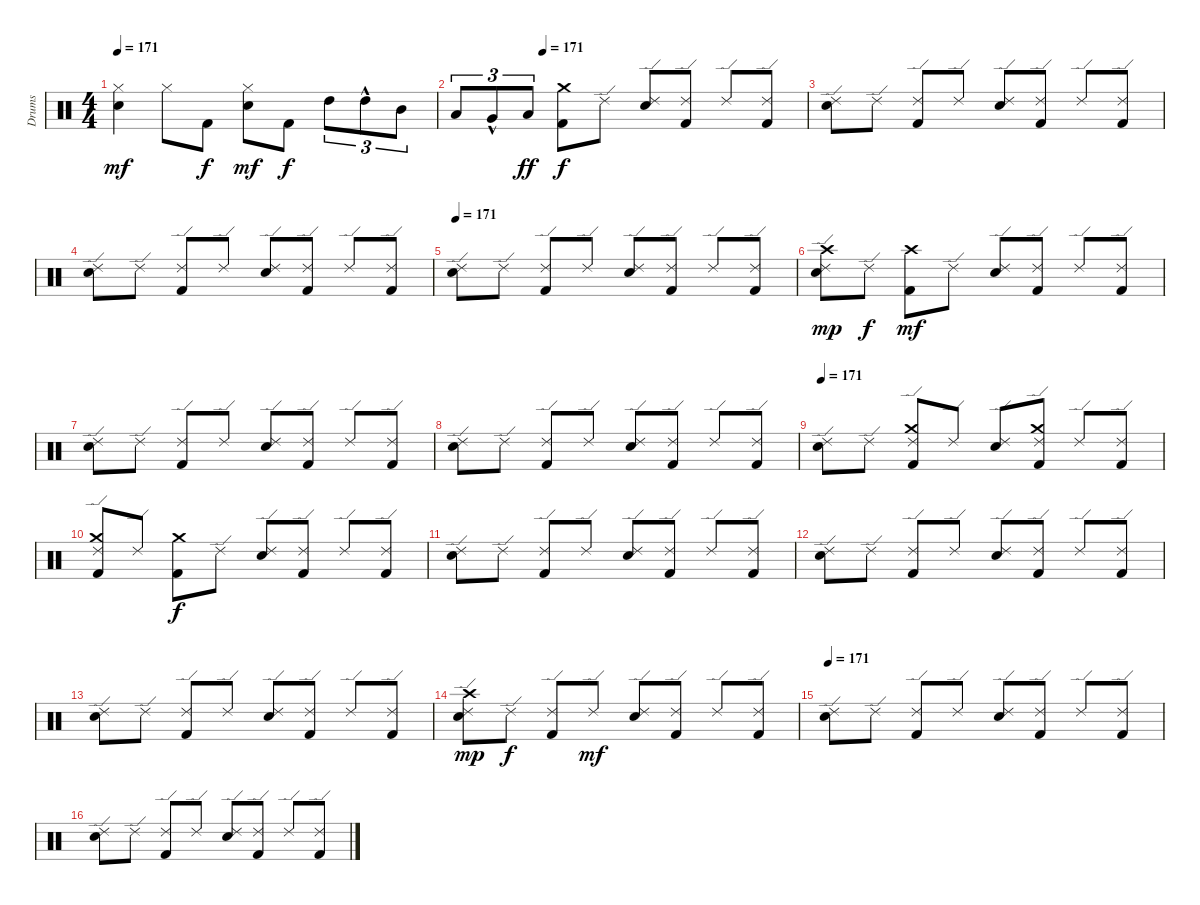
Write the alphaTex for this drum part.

\track ("Drums" "Drums") {instrument percussion}
\staff {score}
\articulation defaults
\ts (4 4)
\tempo 171
\clef neutral
\ks c
("Electric Snare (hit)" "Hi-Hat (closed)").4{dy mf} "Hi-Hat (closed)".8 "Kick (hit) 2".8{dy f} ("Electric Snare (hit)" "Hi-Hat (closed)").8{dy mf} "Kick (hit) 2".8{dy f} "High Tom (hit)".8{tu (3 2)} "High Tom (hit)"{hac}.8{tu (3 2)} "Mid Tom (hit)".8{tu (3 2)} |
\tempo (171 0.25)
"Low Tom (hit)".8{tu (3 2)} "Very Low Tom (hit)"{hac}.8{tu (3 2)} "Low Floor Tom (hit)".8{tu (3 2) dy ff} ("Kick (hit) 2" "Crash medium (hit)").8{dy f} "Ride (edge) 2".8 ("Electric Snare (hit)" "Ride (edge) 2").8 ("Kick (hit) 2" "Ride (edge) 2").8 "Ride (edge) 2".8 ("Kick (hit) 2" "Ride (edge) 2").8 |
("Electric Snare (hit)" "Ride (edge) 2").8 "Ride (edge) 2".8 ("Kick (hit) 2" "Ride (edge) 2").8 "Ride (edge) 2".8 ("Electric Snare (hit)" "Ride (edge) 2").8 ("Kick (hit) 2" "Ride (edge) 2").8 "Ride (edge) 2".8 ("Kick (hit) 2" "Ride (edge) 2").8 |
("Electric Snare (hit)" "Ride (edge) 2").8 "Ride (edge) 2".8 ("Kick (hit) 2" "Ride (edge) 2").8 "Ride (edge) 2".8 ("Electric Snare (hit)" "Ride (edge) 2").8 ("Kick (hit) 2" "Ride (edge) 2").8 "Ride (edge) 2".8 ("Kick (hit) 2" "Ride (edge) 2").8 |
\tempo 171
("Electric Snare (hit)" "Ride (edge) 2").8 "Ride (edge) 2".8 ("Kick (hit) 2" "Ride (edge) 2").8 "Ride (edge) 2".8 ("Electric Snare (hit)" "Ride (edge) 2").8 ("Kick (hit) 2" "Ride (edge) 2").8 "Ride (edge) 2".8 ("Kick (hit) 2" "Ride (edge) 2").8 |
("Electric Snare (hit)" "Crash high (hit)" "Ride (edge) 2").8{dy mp} "Ride (edge) 2".8{dy f} ("Kick (hit) 2" "Crash high (hit)").8{dy mf} "Ride (edge) 2".8 ("Electric Snare (hit)" "Ride (edge) 2").8 ("Kick (hit) 2" "Ride (edge) 2").8 "Ride (edge) 2".8 ("Kick (hit) 2" "Ride (edge) 2").8 |
("Electric Snare (hit)" "Ride (edge) 2").8 "Ride (edge) 2".8 ("Kick (hit) 2" "Ride (edge) 2").8 "Ride (edge) 2".8 ("Electric Snare (hit)" "Ride (edge) 2").8 ("Kick (hit) 2" "Ride (edge) 2").8 "Ride (edge) 2".8 ("Kick (hit) 2" "Ride (edge) 2").8 |
("Electric Snare (hit)" "Ride (edge) 2").8 "Ride (edge) 2".8 ("Kick (hit) 2" "Ride (edge) 2").8 "Ride (edge) 2".8 ("Electric Snare (hit)" "Ride (edge) 2").8 ("Kick (hit) 2" "Ride (edge) 2").8 "Ride (edge) 2".8 ("Kick (hit) 2" "Ride (edge) 2").8 |
\tempo 171
("Electric Snare (hit)" "Ride (edge) 2").8 "Ride (edge) 2".8 ("Kick (hit) 2" "Crash medium (hit)" "Ride (edge) 2").8 "Ride (edge) 2".8 ("Electric Snare (hit)" "Ride (edge) 2").8 ("Kick (hit) 2" "Crash medium (hit)" "Ride (edge) 2").8 "Ride (edge) 2".8 ("Kick (hit) 2" "Ride (edge) 2").8 |
("Kick (hit) 2" "Crash medium (hit)" "Ride (edge) 2").8 "Ride (edge) 2".8 ("Kick (hit) 2" "Crash medium (hit)").8{dy f} "Ride (edge) 2".8 ("Electric Snare (hit)" "Ride (edge) 2").8 ("Kick (hit) 2" "Ride (edge) 2").8 "Ride (edge) 2".8 ("Kick (hit) 2" "Ride (edge) 2").8 |
("Electric Snare (hit)" "Ride (edge) 2").8 "Ride (edge) 2".8 ("Kick (hit) 2" "Ride (edge) 2").8 "Ride (edge) 2".8 ("Electric Snare (hit)" "Ride (edge) 2").8 ("Kick (hit) 2" "Ride (edge) 2").8 "Ride (edge) 2".8 ("Kick (hit) 2" "Ride (edge) 2").8 |
("Electric Snare (hit)" "Ride (edge) 2").8 "Ride (edge) 2".8 ("Kick (hit) 2" "Ride (edge) 2").8 "Ride (edge) 2".8 ("Electric Snare (hit)" "Ride (edge) 2").8 ("Kick (hit) 2" "Ride (edge) 2").8 "Ride (edge) 2".8 ("Kick (hit) 2" "Ride (edge) 2").8 |
("Electric Snare (hit)" "Ride (edge) 2").8 "Ride (edge) 2".8 ("Kick (hit) 2" "Ride (edge) 2").8 "Ride (edge) 2".8 ("Electric Snare (hit)" "Ride (edge) 2").8 ("Kick (hit) 2" "Ride (edge) 2").8 "Ride (edge) 2".8 ("Kick (hit) 2" "Ride (edge) 2").8 |
("Electric Snare (hit)" "Crash high (hit)" "Ride (edge) 2").8{dy mp} "Ride (edge) 2".8{dy f} ("Kick (hit) 2" "Ride (edge) 2").8 "Ride (edge) 2".8{dy mf} ("Electric Snare (hit)" "Ride (edge) 2").8 ("Kick (hit) 2" "Ride (edge) 2").8 "Ride (edge) 2".8 ("Kick (hit) 2" "Ride (edge) 2").8 |
\tempo 171
("Electric Snare (hit)" "Ride (edge) 2").8 "Ride (edge) 2".8 ("Kick (hit) 2" "Ride (edge) 2").8 "Ride (edge) 2".8 ("Electric Snare (hit)" "Ride (edge) 2").8 ("Kick (hit) 2" "Ride (edge) 2").8 "Ride (edge) 2".8 ("Kick (hit) 2" "Ride (edge) 2").8 |
("Electric Snare (hit)" "Ride (edge) 2").8 "Ride (edge) 2".8 ("Kick (hit) 2" "Ride (edge) 2").8 "Ride (edge) 2".8 ("Electric Snare (hit)" "Ride (edge) 2").8 ("Kick (hit) 2" "Ride (edge) 2").8 "Ride (edge) 2".8 ("Kick (hit) 2" "Ride (edge) 2").8
